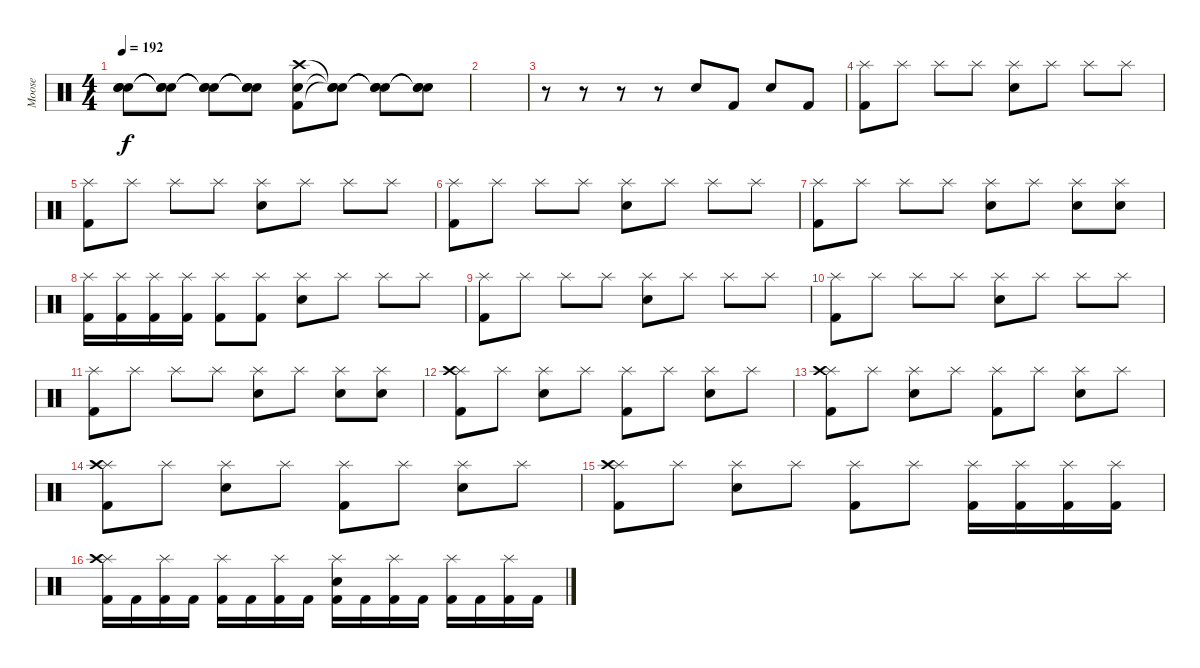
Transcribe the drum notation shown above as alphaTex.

\track ("Moose" "Moose") {instrument percussion}
\staff {score}
\articulation defaults
\ts (4 4)
\tempo 192
\clef neutral
\ks c
("Snare (hit)"{t} "Snare (hit)"{t} "Snare (hit)"{t}).8{dy f} ("Snare (hit)"{t} "Snare (hit)"{t} "Snare (hit)"{t}).8 ("Snare (hit)"{t} "Snare (hit)"{t} "Snare (hit)"{t}).8 ("Snare (hit)"{t} "Snare (hit)"{t} "Snare (hit)"{t}).8 ("Kick (hit) 2" "Electric Snare (hit)" "Crash high (hit)").8 ("Snare (hit)"{t} "Snare (hit)"{t} "Snare (hit)"{t}).8 ("Snare (hit)"{t} "Snare (hit)"{t} "Snare (hit)"{t}).8 ("Snare (hit)"{t} "Snare (hit)"{t} "Snare (hit)"{t}).8 |
|
r.8 r.8 r.8 r.8 "Snare (hit) 2".8 "Kick (hit) 2".8 "Snare (hit) 2".8 "Kick (hit) 2".8 |
("Splash (hit)" "Kick (hit) 2").8 "Splash (hit)".8 "Splash (hit)".8 "Splash (hit)".8 ("Splash (hit)" "Electric Snare (hit)").8 "Splash (hit)".8 "Splash (hit)".8 "Splash (hit)".8 |
("Splash (hit)" "Kick (hit) 2").8 "Splash (hit)".8 "Splash (hit)".8 "Splash (hit)".8 ("Splash (hit)" "Electric Snare (hit)").8 "Splash (hit)".8 "Splash (hit)".8 "Splash (hit)".8 |
("Splash (hit)" "Kick (hit) 2").8 "Splash (hit)".8 "Splash (hit)".8 "Splash (hit)".8 ("Splash (hit)" "Electric Snare (hit)").8 "Splash (hit)".8 "Splash (hit)".8 "Splash (hit)".8 |
("Splash (hit)" "Kick (hit) 2").8 "Splash (hit)".8 "Splash (hit)".8 "Splash (hit)".8 ("Splash (hit)" "Electric Snare (hit)").8 "Splash (hit)".8 ("Splash (hit)" "Electric Snare (hit)").8 ("Splash (hit)" "Electric Snare (hit)").8 |
("Splash (hit)" "Kick (hit) 2").16 ("Splash (hit)" "Kick (hit) 2").16 ("Splash (hit)" "Kick (hit) 2").16 ("Splash (hit)" "Kick (hit) 2").16 ("Splash (hit)" "Kick (hit) 2").8 ("Splash (hit)" "Kick (hit) 2").8 ("Splash (hit)" "Electric Snare (hit)").8 "Splash (hit)".8 "Splash (hit)".8 "Splash (hit)".8 |
("Splash (hit)" "Kick (hit) 2").8 "Splash (hit)".8 "Splash (hit)".8 "Splash (hit)".8 ("Splash (hit)" "Electric Snare (hit)").8 "Splash (hit)".8 "Splash (hit)".8 "Splash (hit)".8 |
("Splash (hit)" "Kick (hit) 2").8 "Splash (hit)".8 "Splash (hit)".8 "Splash (hit)".8 ("Splash (hit)" "Electric Snare (hit)").8 "Splash (hit)".8 "Splash (hit)".8 "Splash (hit)".8 |
("Splash (hit)" "Kick (hit) 2").8 "Splash (hit)".8 "Splash (hit)".8 "Splash (hit)".8 ("Splash (hit)" "Electric Snare (hit)").8 "Splash (hit)".8 ("Splash (hit)" "Electric Snare (hit)").8 ("Splash (hit)" "Electric Snare (hit)").8 |
("Splash (hit)" "Crash high (hit)" "Kick (hit) 2").8 "Splash (hit)".8 ("Splash (hit)" "Electric Snare (hit)").8 "Splash (hit)".8 ("Splash (hit)" "Kick (hit) 2").8 "Splash (hit)".8 ("Splash (hit)" "Electric Snare (hit)").8 "Splash (hit)".8 |
("Splash (hit)" "Crash high (hit)" "Kick (hit) 2").8 "Splash (hit)".8 ("Splash (hit)" "Electric Snare (hit)").8 "Splash (hit)".8 ("Splash (hit)" "Kick (hit) 2").8 "Splash (hit)".8 ("Splash (hit)" "Electric Snare (hit)").8 "Splash (hit)".8 |
("Splash (hit)" "Crash high (hit)" "Kick (hit) 2").8 "Splash (hit)".8 ("Splash (hit)" "Electric Snare (hit)").8 "Splash (hit)".8 ("Splash (hit)" "Kick (hit) 2").8 "Splash (hit)".8 ("Splash (hit)" "Electric Snare (hit)").8 "Splash (hit)".8 |
("Splash (hit)" "Crash high (hit)" "Kick (hit) 2").8 "Splash (hit)".8 ("Splash (hit)" "Electric Snare (hit)").8 "Splash (hit)".8 ("Splash (hit)" "Kick (hit) 2").8 "Splash (hit)".8 ("Splash (hit)" "Kick (hit) 2").16 ("Splash (hit)" "Kick (hit) 2").16 ("Splash (hit)" "Kick (hit) 2").16 ("Splash (hit)" "Kick (hit) 2").16 |
("Splash (hit)" "Crash high (hit)" "Kick (hit) 2").16 "Kick (hit) 2".16 ("Splash (hit)" "Kick (hit) 2").16 "Kick (hit) 2".16 ("Splash (hit)" "Kick (hit) 2").16 "Kick (hit) 2".16 ("Splash (hit)" "Kick (hit) 2").16 "Kick (hit) 2".16 ("Splash (hit)" "Electric Snare (hit)" "Kick (hit) 2").16 "Kick (hit) 2".16 ("Splash (hit)" "Kick (hit) 2").16 "Kick (hit) 2".16 ("Splash (hit)" "Kick (hit) 2").16 "Kick (hit) 2".16 ("Splash (hit)" "Kick (hit) 2").16 "Kick (hit) 2".16
